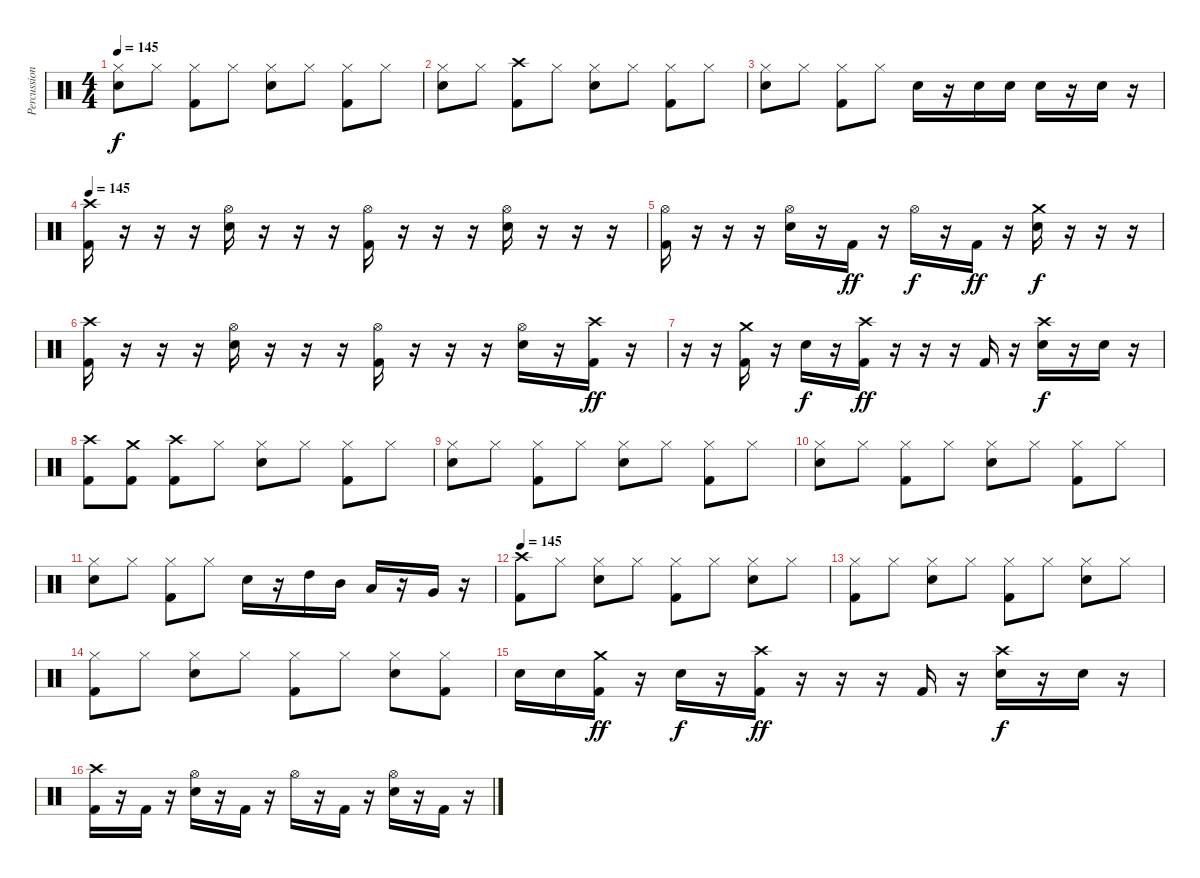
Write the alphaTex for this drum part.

\track ("Percussion" "Percussion") {instrument percussion}
\staff {score}
\articulation defaults
\ts (4 4)
\tempo 145
\clef neutral
\ks c
("Hi-Hat (closed)" "Snare (hit) 2").8{dy f} "Hi-Hat (closed)".8 ("Hi-Hat (closed)" "Kick (hit) 2").8 "Hi-Hat (closed)".8 ("Hi-Hat (closed)" "Snare (hit) 2").8 "Hi-Hat (closed)".8 ("Hi-Hat (closed)" "Kick (hit) 2").8 "Hi-Hat (closed)".8 |
("Hi-Hat (closed)" "Snare (hit) 2").8 "Hi-Hat (closed)".8 ("Crash high (hit)" "Kick (hit) 2").8 "Hi-Hat (closed)".8 ("Hi-Hat (closed)" "Snare (hit) 2").8 "Hi-Hat (closed)".8 ("Hi-Hat (closed)" "Kick (hit) 2").8 "Hi-Hat (closed)".8 |
("Hi-Hat (closed)" "Snare (hit) 2").8 "Hi-Hat (closed)".8 ("Hi-Hat (closed)" "Kick (hit) 2").8 "Hi-Hat (closed)".8 "Snare (hit) 2".16 r.16 "Snare (hit) 2".16 "Snare (hit) 2".16 "Snare (hit) 2".16 r.16 "Snare (hit) 2".16 r.16 |
\tempo 145
("Crash high (hit)" "Kick (hit) 2").16 r.16 r.16 r.16 ("Hi-Hat (open)" "Snare (hit) 2").16 r.16 r.16 r.16 ("Hi-Hat (open)" "Kick (hit) 2").16 r.16 r.16 r.16 ("Hi-Hat (open)" "Snare (hit) 2").16 r.16 r.16 r.16 |
("Hi-Hat (open)" "Kick (hit) 2").16 r.16 r.16 r.16 ("Hi-Hat (open)" "Snare (hit) 2").16 r.16 "Kick (hit) 2".16{dy ff} r.16 "Hi-Hat (open)".16{dy f} r.16 "Kick (hit) 2".16{dy ff} r.16 ("Crash medium (hit)" "Snare (hit) 2").16{dy f} r.16 r.16 r.16 |
("Crash high (hit)" "Kick (hit) 2").16 r.16 r.16 r.16 ("Hi-Hat (open)" "Snare (hit) 2").16 r.16 r.16 r.16 ("Hi-Hat (open)" "Kick (hit) 2").16 r.16 r.16 r.16 ("Hi-Hat (open)" "Snare (hit) 2").16 r.16 ("Crash high (hit)" "Kick (hit) 2").16{dy ff} r.16 |
r.16 r.16 ("Crash medium (hit)" "Kick (hit) 2").16 r.16 "Snare (hit) 2".16{dy f} r.16 ("Crash high (hit)" "Kick (hit) 2").16{dy ff} r.16 r.16 r.16 "Kick (hit) 2".16 r.16 ("Crash high (hit)" "Snare (hit) 2").16{dy f} r.16 "Snare (hit) 2".16 r.16 |
("Crash high (hit)" "Kick (hit) 2").8 ("Crash medium (hit)" "Kick (hit) 2").8 ("Crash high (hit)" "Kick (hit) 2").8 "Hi-Hat (closed)".8 ("Hi-Hat (closed)" "Snare (hit) 2").8 "Hi-Hat (closed)".8 ("Hi-Hat (closed)" "Kick (hit) 2").8 "Hi-Hat (closed)".8 |
("Hi-Hat (closed)" "Snare (hit) 2").8 "Hi-Hat (closed)".8 ("Hi-Hat (closed)" "Kick (hit) 2").8 "Hi-Hat (closed)".8 ("Hi-Hat (closed)" "Snare (hit) 2").8 "Hi-Hat (closed)".8 ("Hi-Hat (closed)" "Kick (hit) 2").8 "Hi-Hat (closed)".8 |
("Hi-Hat (closed)" "Snare (hit) 2").8 "Hi-Hat (closed)".8 ("Hi-Hat (closed)" "Kick (hit) 2").8 "Hi-Hat (closed)".8 ("Hi-Hat (closed)" "Snare (hit) 2").8 "Hi-Hat (closed)".8 ("Hi-Hat (closed)" "Kick (hit) 2").8 "Hi-Hat (closed)".8 |
("Hi-Hat (closed)" "Snare (hit) 2").8 "Hi-Hat (closed)".8 ("Hi-Hat (closed)" "Kick (hit) 2").8 "Hi-Hat (closed)".8 "Snare (hit) 2".16 r.16 "High Tom (hit)".16 "Mid Tom (hit)".16 "Low Tom (hit)".16 r.16 "Very Low Tom (hit)".16 r.16 |
\tempo 145
("Crash high (hit)" "Kick (hit) 2").8 "Hi-Hat (closed)".8 ("Hi-Hat (closed)" "Snare (hit) 2").8 "Hi-Hat (closed)".8 ("Hi-Hat (closed)" "Kick (hit) 2").8 "Hi-Hat (closed)".8 ("Hi-Hat (closed)" "Snare (hit) 2").8 "Hi-Hat (closed)".8 |
("Hi-Hat (closed)" "Kick (hit) 2").8 "Hi-Hat (closed)".8 ("Hi-Hat (closed)" "Snare (hit) 2").8 "Hi-Hat (closed)".8 ("Hi-Hat (closed)" "Kick (hit) 2").8 "Hi-Hat (closed)".8 ("Hi-Hat (closed)" "Snare (hit) 2").8 "Hi-Hat (closed)".8 |
("Hi-Hat (closed)" "Kick (hit) 2").8 "Hi-Hat (closed)".8 ("Hi-Hat (closed)" "Snare (hit) 2").8 "Hi-Hat (closed)".8 ("Hi-Hat (closed)" "Kick (hit) 2").8 "Hi-Hat (closed)".8 ("Hi-Hat (closed)" "Snare (hit) 2").8 ("Hi-Hat (closed)" "Kick (hit) 2").8 |
"Snare (hit) 2".16 "Snare (hit) 2".16 ("Crash medium (hit)" "Kick (hit) 2").16{dy ff} r.16 "Snare (hit) 2".16{dy f} r.16 ("Crash high (hit)" "Kick (hit) 2").16{dy ff} r.16 r.16 r.16 "Kick (hit) 2".16 r.16 ("Crash high (hit)" "Snare (hit) 2").16{dy f} r.16 "Snare (hit) 2".16 r.16 |
("Crash high (hit)" "Kick (hit) 2").16 r.16 "Kick (hit) 2".16 r.16 ("Hi-Hat (open)" "Snare (hit) 2").16 r.16 "Kick (hit) 2".16 r.16 "Hi-Hat (open)".16 r.16 "Kick (hit) 2".16 r.16 ("Hi-Hat (open)" "Snare (hit) 2").16 r.16 "Kick (hit) 2".16 r.16
